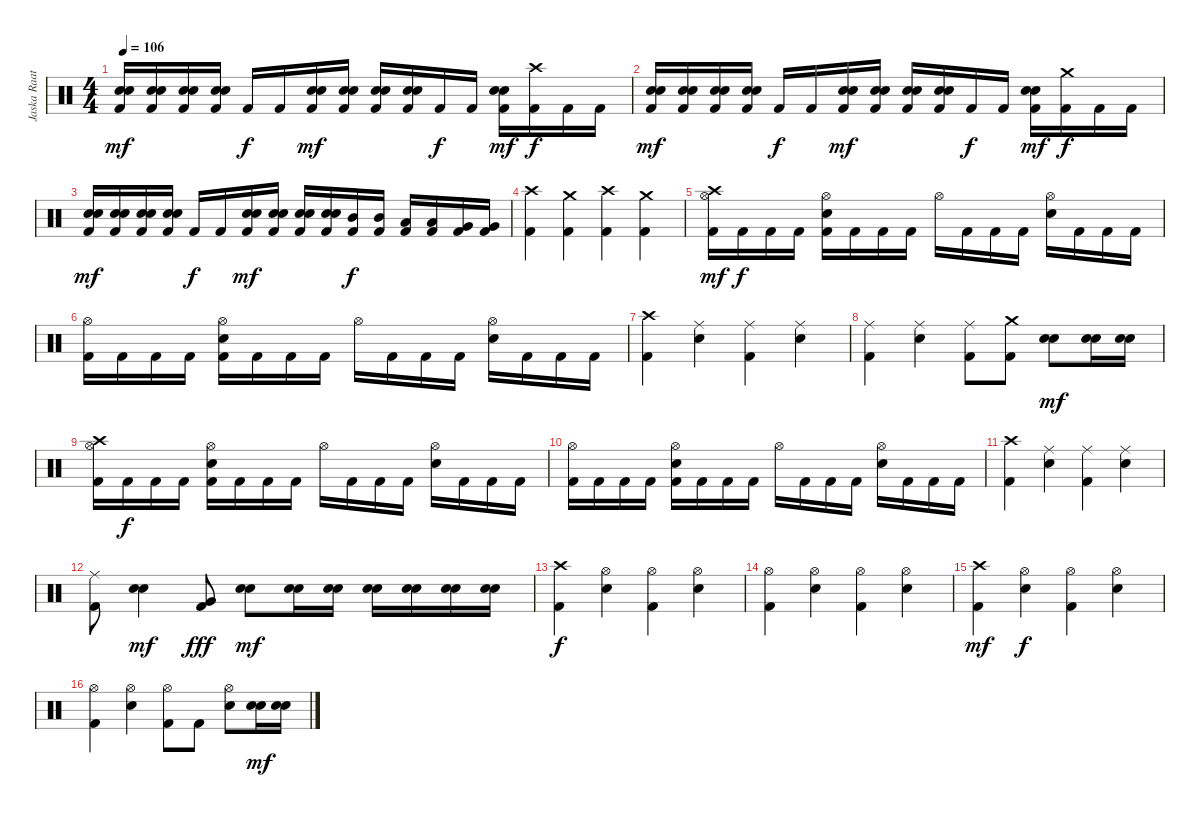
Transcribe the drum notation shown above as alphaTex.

\track ("Jaska Raatikainen" "Jaska Raat") {instrument percussion}
\staff {score}
\articulation defaults
\ts (4 4)
\tempo 106
\clef neutral
\ks c
("Kick (hit) 2" "Electric Snare (hit)" "Snare (hit) 2").16{dy mf} ("Kick (hit) 2" "Electric Snare (hit)" "Snare (hit) 2").16 ("Kick (hit) 2" "Electric Snare (hit)" "Snare (hit) 2").16 ("Kick (hit) 2" "Electric Snare (hit)" "Snare (hit) 2").16 "Kick (hit) 2".16{dy f} "Kick (hit) 2".16 ("Kick (hit) 2" "Electric Snare (hit)" "Snare (hit) 2").16{dy mf} ("Kick (hit) 2" "Electric Snare (hit)" "Snare (hit) 2").16 ("Kick (hit) 2" "Electric Snare (hit)" "Snare (hit) 2").16 ("Kick (hit) 2" "Electric Snare (hit)" "Snare (hit) 2").16 "Kick (hit) 2".16{dy f} "Kick (hit) 2".16 ("Kick (hit) 2" "Electric Snare (hit)" "Snare (hit) 2").16{dy mf} ("Kick (hit) 2" "Crash high (hit)").16{dy f} "Kick (hit) 2".16 "Kick (hit) 2".16 |
("Kick (hit) 2" "Electric Snare (hit)" "Snare (hit) 2").16{dy mf} ("Kick (hit) 2" "Electric Snare (hit)" "Snare (hit) 2").16 ("Kick (hit) 2" "Electric Snare (hit)" "Snare (hit) 2").16 ("Kick (hit) 2" "Electric Snare (hit)" "Snare (hit) 2").16 "Kick (hit) 2".16{dy f} "Kick (hit) 2".16 ("Kick (hit) 2" "Electric Snare (hit)" "Snare (hit) 2").16{dy mf} ("Kick (hit) 2" "Electric Snare (hit)" "Snare (hit) 2").16 ("Kick (hit) 2" "Electric Snare (hit)" "Snare (hit) 2").16 ("Kick (hit) 2" "Electric Snare (hit)" "Snare (hit) 2").16 "Kick (hit) 2".16{dy f} "Kick (hit) 2".16 ("Kick (hit) 2" "Electric Snare (hit)" "Snare (hit) 2").16{dy mf} ("Kick (hit) 2" "Crash medium (hit)").16{dy f} "Kick (hit) 2".16 "Kick (hit) 2".16 |
("Kick (hit) 2" "Electric Snare (hit)" "Snare (hit) 2").16{dy mf} ("Kick (hit) 2" "Electric Snare (hit)" "Snare (hit) 2").16 ("Kick (hit) 2" "Electric Snare (hit)" "Snare (hit) 2").16 ("Kick (hit) 2" "Electric Snare (hit)" "Snare (hit) 2").16 "Kick (hit) 2".16{dy f} "Kick (hit) 2".16 ("Kick (hit) 2" "Electric Snare (hit)" "Snare (hit) 2").16{dy mf} ("Kick (hit) 2" "Electric Snare (hit)" "Snare (hit) 2").16 ("Kick (hit) 2" "Electric Snare (hit)" "Snare (hit) 2").16 ("Kick (hit) 2" "Electric Snare (hit)" "Snare (hit) 2").16 ("Kick (hit) 2" "Mid Tom (hit)").16{dy f} ("Kick (hit) 2" "Mid Tom (hit)").16 ("Kick (hit) 2" "Low Tom (hit)").16 ("Kick (hit) 2" "Low Tom (hit)").16 ("Kick (hit) 2" "Very Low Tom (hit)").16 ("Kick (hit) 2" "Very Low Tom (hit)").16 |
("Kick (hit) 2" "Crash high (hit)").4 ("Kick (hit) 2" "Crash medium (hit)").4 ("Kick (hit) 2" "Crash high (hit)").4 ("Kick (hit) 2" "Crash medium (hit)").4 |
("Kick (hit) 2" "Crash high (hit)" "Hi-Hat (open)").16{dy mf} "Kick (hit) 2".16{dy f} "Kick (hit) 2".16 "Kick (hit) 2".16 ("Kick (hit) 2" "Hi-Hat (open)" "Snare (hit) 2").16 "Kick (hit) 2".16 "Kick (hit) 2".16 "Kick (hit) 2".16 "Hi-Hat (open)".16 "Kick (hit) 2".16 "Kick (hit) 2".16 "Kick (hit) 2".16 ("Hi-Hat (open)" "Snare (hit) 2").16 "Kick (hit) 2".16 "Kick (hit) 2".16 "Kick (hit) 2".16 |
("Kick (hit) 2" "Hi-Hat (open)").16 "Kick (hit) 2".16 "Kick (hit) 2".16 "Kick (hit) 2".16 ("Kick (hit) 2" "Hi-Hat (open)" "Snare (hit) 2").16 "Kick (hit) 2".16 "Kick (hit) 2".16 "Kick (hit) 2".16 "Hi-Hat (open)".16 "Kick (hit) 2".16 "Kick (hit) 2".16 "Kick (hit) 2".16 ("Hi-Hat (open)" "Snare (hit) 2").16 "Kick (hit) 2".16 "Kick (hit) 2".16 "Kick (hit) 2".16 |
("Kick (hit) 2" "Crash high (hit)").4 ("Ride (middle)" "Snare (hit) 2").4 ("Kick (hit) 2" "Ride (middle)").4 ("Ride (middle)" "Snare (hit) 2").4 |
("Kick (hit) 2" "Ride (middle)").4 ("Ride (middle)" "Snare (hit) 2").4 ("Kick (hit) 2" "Ride (middle)").8 ("Kick (hit) 2" "Crash medium (hit)").8 ("Electric Snare (hit)" "Snare (hit) 2").8{dy mf} ("Electric Snare (hit)" "Snare (hit) 2").16 ("Electric Snare (hit)" "Snare (hit) 2").16 |
("Kick (hit) 2" "Crash high (hit)" "Hi-Hat (open)").16 "Kick (hit) 2".16{dy f} "Kick (hit) 2".16 "Kick (hit) 2".16 ("Kick (hit) 2" "Hi-Hat (open)" "Snare (hit) 2").16 "Kick (hit) 2".16 "Kick (hit) 2".16 "Kick (hit) 2".16 "Hi-Hat (open)".16 "Kick (hit) 2".16 "Kick (hit) 2".16 "Kick (hit) 2".16 ("Hi-Hat (open)" "Snare (hit) 2").16 "Kick (hit) 2".16 "Kick (hit) 2".16 "Kick (hit) 2".16 |
("Kick (hit) 2" "Hi-Hat (open)").16 "Kick (hit) 2".16 "Kick (hit) 2".16 "Kick (hit) 2".16 ("Kick (hit) 2" "Hi-Hat (open)" "Snare (hit) 2").16 "Kick (hit) 2".16 "Kick (hit) 2".16 "Kick (hit) 2".16 "Hi-Hat (open)".16 "Kick (hit) 2".16 "Kick (hit) 2".16 "Kick (hit) 2".16 ("Hi-Hat (open)" "Snare (hit) 2").16 "Kick (hit) 2".16 "Kick (hit) 2".16 "Kick (hit) 2".16 |
("Kick (hit) 2" "Crash high (hit)").4 ("Ride (middle)" "Snare (hit) 2").4 ("Kick (hit) 2" "Ride (middle)").4 ("Ride (middle)" "Snare (hit) 2").4 |
("Kick (hit) 2" "Ride (middle)").8 ("Electric Snare (hit)" "Snare (hit) 2").4{dy mf} ("Kick (hit) 2" "Very Low Tom (hit)").8{dy fff} ("Electric Snare (hit)" "Snare (hit) 2").8{dy mf} ("Electric Snare (hit)" "Snare (hit) 2").16 ("Electric Snare (hit)" "Snare (hit) 2").16 ("Electric Snare (hit)" "Snare (hit) 2").16 ("Electric Snare (hit)" "Snare (hit) 2").16 ("Electric Snare (hit)" "Snare (hit) 2").16 ("Electric Snare (hit)" "Snare (hit) 2").16 |
("Kick (hit) 2" "Crash high (hit)").4{dy f} ("Hi-Hat (open)" "Snare (hit) 2").4 ("Kick (hit) 2" "Hi-Hat (open)").4 ("Hi-Hat (open)" "Snare (hit) 2").4 |
("Kick (hit) 2" "Hi-Hat (open)").4 ("Hi-Hat (open)" "Snare (hit) 2").4 ("Kick (hit) 2" "Hi-Hat (open)").4 ("Hi-Hat (open)" "Snare (hit) 2").4 |
("Kick (hit) 2" "Crash high (hit)").4{dy mf} ("Hi-Hat (open)" "Snare (hit) 2").4{dy f} ("Kick (hit) 2" "Hi-Hat (open)").4 ("Hi-Hat (open)" "Snare (hit) 2").4 |
("Kick (hit) 2" "Hi-Hat (open)").4 ("Hi-Hat (open)" "Snare (hit) 2").4 ("Kick (hit) 2" "Hi-Hat (open)").8 "Kick (hit) 2".8 ("Hi-Hat (open)" "Snare (hit) 2").8 ("Electric Snare (hit)" "Snare (hit) 2").16{dy mf} ("Electric Snare (hit)" "Snare (hit) 2").16
